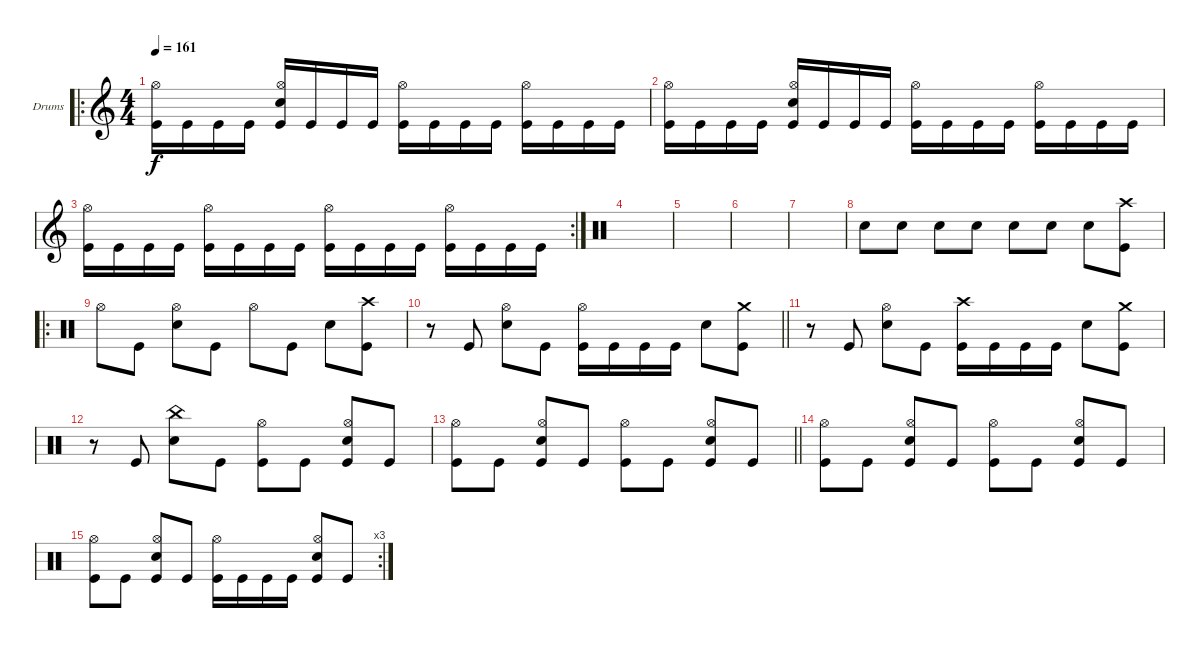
\bracketExtendMode groupsimilarinstruments
\firstSystemTrackNameOrientation horizontal
\otherSystemsTrackNameOrientation horizontal
\track ("Drumkit" "Drums") {instrument percussion}
\staff {score}
\articulation defaults
\ro
\ts (4 4)
\tempo 161
\clef g2
\ks c
("Kick (hit)" "Hi-Hat (open)").16{dy f} "Kick (hit)".16 "Kick (hit)".16 "Kick (hit)".16 ("Kick (hit)" "Hi-Hat (open)" "Snare (hit) 2").16 "Kick (hit)".16 "Kick (hit)".16 "Kick (hit)".16 ("Kick (hit)" "Hi-Hat (open)").16 "Kick (hit)".16 "Kick (hit)".16 "Kick (hit)".16 ("Kick (hit)" "Hi-Hat (open)").16 "Kick (hit)".16 "Kick (hit)".16 "Kick (hit)".16 |
("Kick (hit)" "Hi-Hat (open)").16 "Kick (hit)".16 "Kick (hit)".16 "Kick (hit)".16 ("Kick (hit)" "Hi-Hat (open)" "Snare (hit) 2").16 "Kick (hit)".16 "Kick (hit)".16 "Kick (hit)".16 ("Kick (hit)" "Hi-Hat (open)").16 "Kick (hit)".16 "Kick (hit)".16 "Kick (hit)".16 ("Kick (hit)" "Hi-Hat (open)").16 "Kick (hit)".16 "Kick (hit)".16 "Kick (hit)".16 |
\rc 2
("Kick (hit)" "Hi-Hat (open)").16 "Kick (hit)".16 "Kick (hit)".16 "Kick (hit)".16 ("Kick (hit)" "Hi-Hat (open)").16 "Kick (hit)".16 "Kick (hit)".16 "Kick (hit)".16 ("Kick (hit)" "Hi-Hat (open)").16 "Kick (hit)".16 "Kick (hit)".16 "Kick (hit)".16 ("Kick (hit)" "Hi-Hat (open)").16 "Kick (hit)".16 "Kick (hit)".16 "Kick (hit)".16 |
\clef neutral
|
|
|
|
"Snare (hit) 2".8 "Snare (hit) 2".8 "Snare (hit) 2".8 "Snare (hit) 2".8 "Snare (hit) 2".8 "Snare (hit) 2".8 "Snare (hit) 2".8 ("Crash high (hit)" "Kick (hit)").8 |
\ro "Hi-Hat (open)".8 "Kick (hit)".8
("Hi-Hat (open)" "Snare (hit) 2").8 "Kick (hit)".8 "Hi-Hat (open)".8 "Kick (hit)".8 "Snare (hit) 2".8 ("Crash high (hit)" "Kick (hit)").8 |
\barLineRight lightlight
r.8 "Kick (hit)".8 ("Hi-Hat (open)" "Snare (hit) 2").8 "Kick (hit)".8 ("Hi-Hat (open)" "Kick (hit)").16 "Kick (hit)".16 "Kick (hit)".16 "Kick (hit)".16 "Snare (hit) 2".8 ("Crash medium (hit)" "Kick (hit)").8 |
r.8 "Kick (hit)".8 ("Hi-Hat (open)" "Snare (hit) 2").8 "Kick (hit)".8 ("Crash high (hit)" "Kick (hit)").16 "Kick (hit)".16 "Kick (hit)".16 "Kick (hit)".16 "Snare (hit) 2".8 ("Crash medium (hit)" "Kick (hit)").8 |
r.8 "Kick (hit)".8 ("China (hit)" "Snare (hit) 2").8 "Kick (hit)".8 ("Hi-Hat (open)" "Kick (hit)").8 "Kick (hit)".8 ("Hi-Hat (open)" "Snare (hit) 2" "Kick (hit)").8 "Kick (hit)".8 |
\barLineRight lightlight
("Hi-Hat (open)" "Kick (hit)").8 "Kick (hit)".8 ("Hi-Hat (open)" "Snare (hit) 2" "Kick (hit)").8 "Kick (hit)".8 ("Hi-Hat (open)" "Kick (hit)").8 "Kick (hit)".8 ("Hi-Hat (open)" "Snare (hit) 2" "Kick (hit)").8 "Kick (hit)".8 |
("Hi-Hat (open)" "Kick (hit)").8 "Kick (hit)".8 ("Hi-Hat (open)" "Snare (hit) 2" "Kick (hit)").8 "Kick (hit)".8 ("Hi-Hat (open)" "Kick (hit)").8 "Kick (hit)".8 ("Hi-Hat (open)" "Snare (hit) 2" "Kick (hit)").8 "Kick (hit)".8 |
\rc 3
("Hi-Hat (open)" "Kick (hit)").8 "Kick (hit)".8 ("Hi-Hat (open)" "Snare (hit) 2" "Kick (hit)").8 "Kick (hit)".8 ("Hi-Hat (open)" "Kick (hit)").16 "Kick (hit)".16 "Kick (hit)".16 "Kick (hit)".16 ("Hi-Hat (open)" "Snare (hit) 2" "Kick (hit)").8 "Kick (hit)".8
